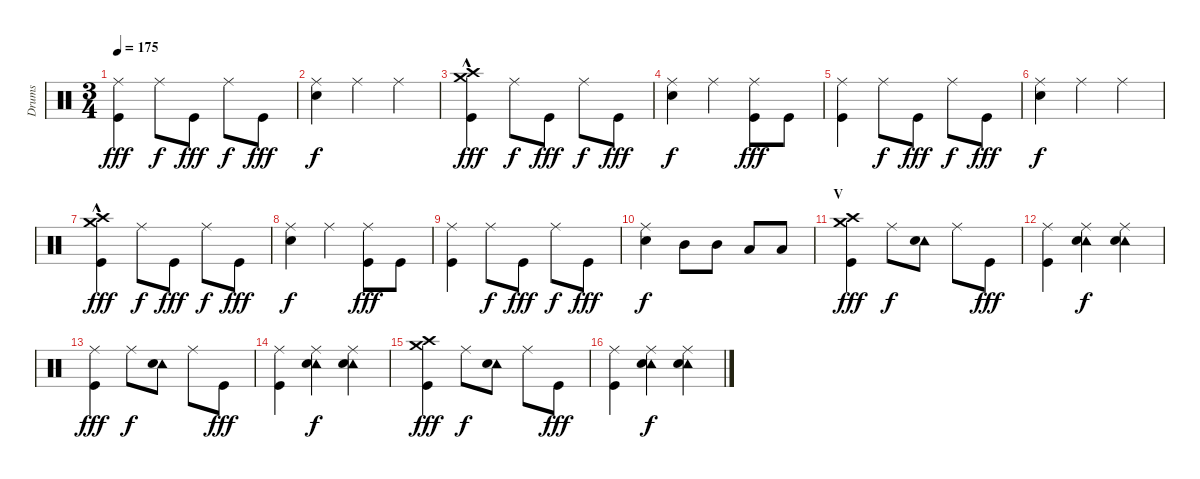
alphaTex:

\track ("Drums" "Drums") {instrument percussion}
\staff {score}
\articulation defaults
\ts (3 4)
\tempo 175
\clef neutral
\ks c
("Ride (middle)" "Kick (hit)").4{dy fff} "Ride (middle)".8{dy f} "Kick (hit)".8{dy fff} "Ride (middle)".8{dy f} "Kick (hit)".8{dy fff} |
("Ride (middle)" "Snare (hit) 2").4{dy f} "Ride (middle)".4 "Ride (middle)".4 |
("Crash high (hit)"{hac} "Crash medium (hit)" "Kick (hit)").4{dy fff} "Ride (middle)".8{dy f} "Kick (hit)".8{dy fff} "Ride (middle)".8{dy f} "Kick (hit)".8{dy fff} |
("Ride (middle)" "Snare (hit) 2").4{dy f} "Ride (middle)".4 ("Ride (middle)" "Kick (hit)").8{dy fff} "Kick (hit)".8 |
("Ride (middle)" "Kick (hit)").4 "Ride (middle)".8{dy f} "Kick (hit)".8{dy fff} "Ride (middle)".8{dy f} "Kick (hit)".8{dy fff} |
("Ride (middle)" "Snare (hit) 2").4{dy f} "Ride (middle)".4 "Ride (middle)".4 |
("Crash high (hit)"{hac} "Crash medium (hit)" "Kick (hit)").4{dy fff} "Ride (middle)".8{dy f} "Kick (hit)".8{dy fff} "Ride (middle)".8{dy f} "Kick (hit)".8{dy fff} |
("Ride (middle)" "Snare (hit) 2").4{dy f} "Ride (middle)".4 ("Ride (middle)" "Kick (hit)").8{dy fff} "Kick (hit)".8 |
("Ride (middle)" "Kick (hit)").4 "Ride (middle)".8{dy f} "Kick (hit)".8{dy fff} "Ride (middle)".8{dy f} "Kick (hit)".8{dy fff} |
("Ride (middle)" "Snare (hit) 2").4{dy f} "Mid Tom (hit)".8 "Mid Tom (hit)".8 "Low Tom (hit)".8 "Low Tom (hit)".8 |
\section ("" "V")
("Crash high (hit)" "Crash medium (hit)" "Kick (hit)").4{dy fff} "Ride (middle)".8{dy f} ("Tambourine (hit)" "Snare (hit) 2").8 "Ride (middle)".8 "Kick (hit)".8{dy fff} |
("Ride (middle)" "Kick (hit)").4 ("Ride (middle)" "Tambourine (hit)" "Snare (hit) 2").4{dy f} ("Ride (middle)" "Tambourine (hit)" "Snare (hit) 2").4 |
("Ride (middle)" "Kick (hit)").4{dy fff} "Ride (middle)".8{dy f} ("Tambourine (hit)" "Snare (hit) 2").8 "Ride (middle)".8 "Kick (hit)".8{dy fff} |
("Ride (middle)" "Kick (hit)").4 ("Ride (middle)" "Tambourine (hit)" "Snare (hit) 2").4{dy f} ("Ride (middle)" "Tambourine (hit)" "Snare (hit) 2").4 |
("Crash high (hit)" "Crash medium (hit)" "Kick (hit)").4{dy fff} "Ride (middle)".8{dy f} ("Tambourine (hit)" "Snare (hit) 2").8 "Ride (middle)".8 "Kick (hit)".8{dy fff} |
("Ride (middle)" "Kick (hit)").4 ("Ride (middle)" "Tambourine (hit)" "Snare (hit) 2").4{dy f} ("Ride (middle)" "Tambourine (hit)" "Snare (hit) 2").4
